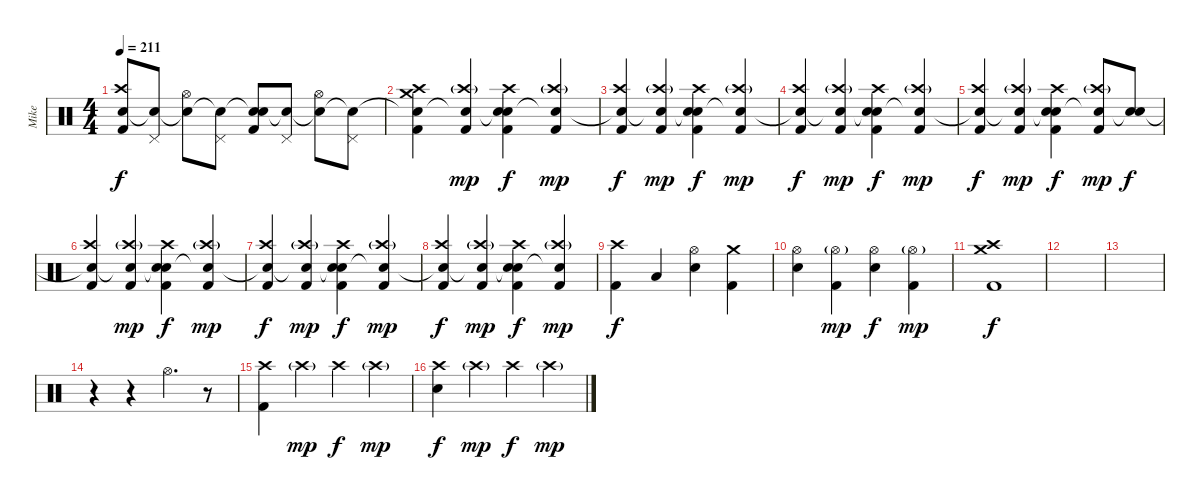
\track ("Mike" "Mike") {instrument percussion}
\staff {score}
\articulation defaults
\ts (4 4)
\tempo 211
\clef neutral
\ks c
("Snare (hit)"{t} "Crash high (hit)" "Kick (hit) 2").8{dy f} ("Snare (hit)"{t} "Pedal Hi-Hat (hit)").8 ("Snare (hit)"{t} "Hi-Hat (open)").8 ("Snare (hit)"{t} "Pedal Hi-Hat (hit)").8 ("Snare (hit)"{t} "Electric Snare (hit)" "Kick (hit) 2").8 ("Snare (hit)"{t} "Pedal Hi-Hat (hit)").8 ("Snare (hit)"{t} "Hi-Hat (open)").8 ("Snare (hit)"{t} "Pedal Hi-Hat (hit)").8 |
("Snare (hit)"{t} "Crash high (hit)" "Crash medium (hit)" "Kick (hit) 2").4 ("Snare (hit)"{t} "Crash high (hit)"{g} "Kick (hit) 2").4{dy mp} ("Snare (hit)"{t} "Crash high (hit)" "Electric Snare (hit)" "Kick (hit) 2").4{dy f} ("Snare (hit)"{t} "Crash high (hit)"{g} "Kick (hit) 2").4{dy mp} |
("Snare (hit)"{t} "Crash high (hit)" "Kick (hit) 2").4{dy f} ("Snare (hit)"{t} "Crash high (hit)"{g} "Kick (hit) 2").4{dy mp} ("Snare (hit)"{t} "Crash high (hit)" "Electric Snare (hit)" "Kick (hit) 2").4{dy f} ("Snare (hit)"{t} "Crash high (hit)"{g} "Kick (hit) 2").4{dy mp} |
("Snare (hit)"{t} "Crash high (hit)" "Kick (hit) 2").4{dy f} ("Snare (hit)"{t} "Crash high (hit)"{g} "Kick (hit) 2").4{dy mp} ("Snare (hit)"{t} "Crash high (hit)" "Electric Snare (hit)" "Kick (hit) 2").4{dy f} ("Snare (hit)"{t} "Crash high (hit)"{g} "Kick (hit) 2").4{dy mp} |
("Snare (hit)"{t} "Crash high (hit)" "Kick (hit) 2").4{dy f} ("Snare (hit)"{t} "Crash high (hit)"{g} "Kick (hit) 2").4{dy mp} ("Snare (hit)"{t} "Crash high (hit)" "Electric Snare (hit)" "Kick (hit) 2").4{dy f} ("Snare (hit)"{t} "Crash high (hit)"{g} "Kick (hit) 2").8{dy mp} ("Snare (hit)"{t} "Electric Snare (hit)").8{dy f} |
("Snare (hit)"{t} "Crash high (hit)" "Kick (hit) 2").4 ("Snare (hit)"{t} "Crash high (hit)"{g} "Kick (hit) 2").4{dy mp} ("Snare (hit)"{t} "Crash high (hit)" "Electric Snare (hit)" "Kick (hit) 2").4{dy f} ("Snare (hit)"{t} "Crash high (hit)"{g} "Kick (hit) 2").4{dy mp} |
("Snare (hit)"{t} "Crash high (hit)" "Kick (hit) 2").4{dy f} ("Snare (hit)"{t} "Crash high (hit)"{g} "Kick (hit) 2").4{dy mp} ("Snare (hit)"{t} "Crash high (hit)" "Electric Snare (hit)" "Kick (hit) 2").4{dy f} ("Snare (hit)"{t} "Crash high (hit)"{g} "Kick (hit) 2").4{dy mp} |
("Snare (hit)"{t} "Crash high (hit)" "Kick (hit) 2").4{dy f} ("Snare (hit)"{t} "Crash high (hit)"{g} "Kick (hit) 2").4{dy mp} ("Snare (hit)"{t} "Crash high (hit)" "Electric Snare (hit)" "Kick (hit) 2").4{dy f} ("Snare (hit)"{t} "Crash high (hit)"{g} "Kick (hit) 2").4{dy mp} |
("Crash high (hit)" "Kick (hit) 2").4{dy f} "Low Tom (hit)".4 ("Hi-Hat (open)" "Electric Snare (hit)").4 ("Crash medium (hit)" "Kick (hit) 2").4 |
("Hi-Hat (open)" "Electric Snare (hit)").4 ("Hi-Hat (open)"{g} "Kick (hit) 2").4{dy mp} ("Hi-Hat (open)" "Electric Snare (hit)").4{dy f} ("Hi-Hat (open)"{g} "Kick (hit) 2").4{dy mp} |
("Crash high (hit)" "Crash medium (hit)" "Kick (hit) 2").1{dy f} |
|
|
r.4 r.4 "Hi-Hat (open)".4{d} r.8 |
("Crash high (hit)" "Kick (hit) 2").4 "Crash high (hit)"{g}.4{dy mp} "Crash high (hit)".4{dy f} "Crash high (hit)"{g}.4{dy mp} |
("Crash high (hit)" "Electric Snare (hit)").4{dy f} "Crash high (hit)"{g}.4{dy mp} "Crash high (hit)".4{dy f} "Crash high (hit)"{g}.4{dy mp}
